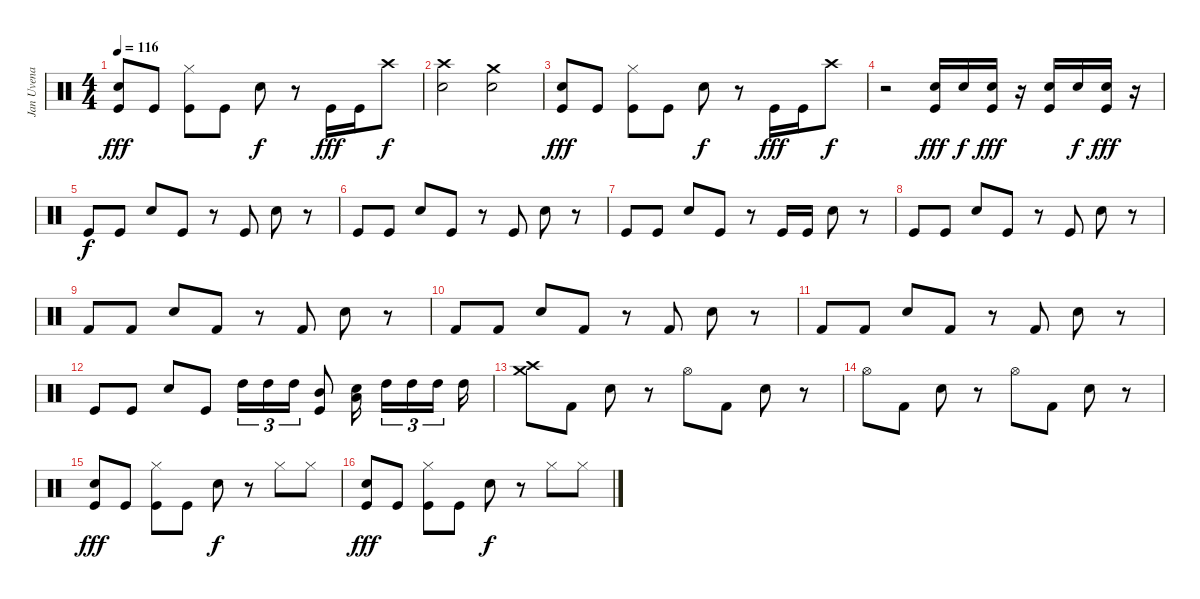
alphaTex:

\track ("Jan Uvena" "Jan Uvena") {instrument percussion}
\staff {score}
\articulation defaults
\ts (4 4)
\tempo 116
\clef neutral
\ks c
("Snare (hit) 2" "Kick (hit)").8{dy fff} "Kick (hit)".8 ("Hi-Hat (closed)" "Kick (hit)").8 "Kick (hit)".8 "Snare (hit) 2".8{dy f} r.8 "Kick (hit)".16{dy fff} "Kick (hit)".16 "Crash high (hit)".8{dy f} |
("Snare (hit) 2" "Crash high (hit)").2 ("Snare (hit) 2" "Crash medium (hit)").2 |
("Snare (hit) 2" "Kick (hit)").8{dy fff} "Kick (hit)".8 ("Hi-Hat (closed)" "Kick (hit)").8 "Kick (hit)".8 "Snare (hit) 2".8{dy f} r.8 "Kick (hit)".16{dy fff} "Kick (hit)".16 "Crash high (hit)".8{dy f} |
r.2 ("Snare (hit) 2" "Kick (hit)").16{dy fff} "Snare (hit) 2".16{dy f} ("Snare (hit) 2" "Kick (hit)").16{dy fff} r.16 ("Snare (hit) 2" "Kick (hit)").16 "Snare (hit) 2".16{dy f} ("Snare (hit) 2" "Kick (hit)").16{dy fff} r.16 |
"Kick (hit)".8{dy f} "Kick (hit)".8 "Snare (hit) 2".8 "Kick (hit)".8 r.8 "Kick (hit)".8 "Snare (hit) 2".8 r.8 |
"Kick (hit)".8 "Kick (hit)".8 "Snare (hit) 2".8 "Kick (hit)".8 r.8 "Kick (hit)".8 "Snare (hit) 2".8 r.8 |
"Kick (hit)".8 "Kick (hit)".8 "Snare (hit) 2".8 "Kick (hit)".8 r.8 "Kick (hit)".16 "Kick (hit)".16 "Snare (hit) 2".8 r.8 |
"Kick (hit)".8 "Kick (hit)".8 "Snare (hit) 2".8 "Kick (hit)".8 r.8 "Kick (hit)".8 "Snare (hit) 2".8 r.8 |
"Kick (hit) 2".8 "Kick (hit) 2".8 "Snare (hit) 2".8 "Kick (hit) 2".8 r.8 "Kick (hit) 2".8 "Snare (hit) 2".8 r.8 |
"Kick (hit) 2".8 "Kick (hit) 2".8 "Snare (hit) 2".8 "Kick (hit) 2".8 r.8 "Kick (hit) 2".8 "Snare (hit) 2".8 r.8 |
"Kick (hit) 2".8 "Kick (hit) 2".8 "Snare (hit) 2".8 "Kick (hit) 2".8 r.8 "Kick (hit) 2".8 "Snare (hit) 2".8 r.8 |
"Kick (hit)".8 "Kick (hit)".8 "Snare (hit) 2".8 "Kick (hit)".8 "High Tom (hit)".16{tu (3 2)} "High Tom (hit)".16{tu (3 2)} "High Tom (hit)".16{tu (3 2)} ("Mid Tom (hit)" "Kick (hit)").8 ("Low Tom (hit)" "Snare (hit) 2").16 "High Tom (hit)".16{tu (3 2)} "High Tom (hit)".16{tu (3 2)} "High Tom (hit)".16{tu (3 2)} "High Tom (hit)".16 |
("Crash medium (hit)" "Crash high (hit)").8 "Kick (hit) 2".8 "Snare (hit) 2".8 r.8 "Hi-Hat (open)".8 "Kick (hit) 2".8 "Snare (hit) 2".8 r.8 |
"Hi-Hat (open)".8 "Kick (hit) 2".8 "Snare (hit) 2".8 r.8 "Hi-Hat (open)".8 "Kick (hit) 2".8 "Snare (hit) 2".8 r.8 |
("Snare (hit) 2" "Kick (hit)").8{dy fff} "Kick (hit)".8 ("Hi-Hat (closed)" "Kick (hit)").8 "Kick (hit)".8 "Snare (hit) 2".8{dy f} r.8 "Hi-Hat (closed)".8 "Hi-Hat (closed)".8 |
("Snare (hit) 2" "Kick (hit)").8{dy fff} "Kick (hit)".8 ("Hi-Hat (closed)" "Kick (hit)").8 "Kick (hit)".8 "Snare (hit) 2".8{dy f} r.8 "Hi-Hat (closed)".8 "Hi-Hat (closed)".8
